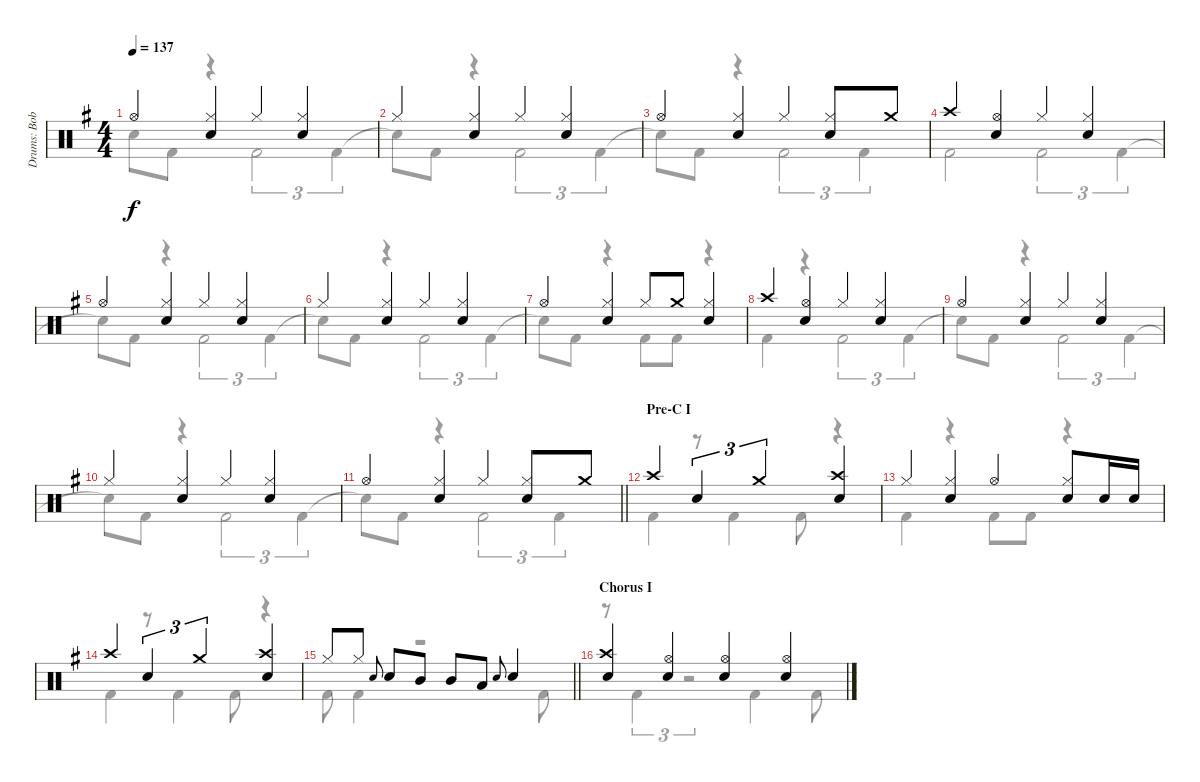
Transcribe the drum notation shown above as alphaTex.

\track ("Drums: Bobby" "Drums: Bob") {instrument percussion}
\staff {score}
\articulation defaults
\voice
\ts (4 4)
\tempo 137
\clef neutral
\ks g "Hi-Hat (open)".4{dy f}
("Hi-Hat (closed)" "Snare (hit) 2").4 "Hi-Hat (closed)".4 ("Hi-Hat (closed)" "Snare (hit) 2").4 |
"Hi-Hat (closed)".4 ("Hi-Hat (closed)" "Snare (hit) 2").4 "Hi-Hat (closed)".4 ("Hi-Hat (closed)" "Snare (hit) 2").4 |
"Hi-Hat (open)".4 ("Hi-Hat (closed)" "Snare (hit) 2").4 "Hi-Hat (closed)".4 ("Hi-Hat (closed)" "Snare (hit) 2").8 "Crash medium (hit)".8 |
"Crash high (hit)".4 ("Hi-Hat (open)" "Snare (hit) 2").4 "Hi-Hat (closed)".4 ("Hi-Hat (closed)" "Snare (hit) 2").4 |
"Hi-Hat (open)".4 ("Hi-Hat (closed)" "Snare (hit) 2").4 "Hi-Hat (closed)".4 ("Hi-Hat (closed)" "Snare (hit) 2").4 |
"Hi-Hat (closed)".4 ("Hi-Hat (closed)" "Snare (hit) 2").4 "Hi-Hat (closed)".4 ("Hi-Hat (closed)" "Snare (hit) 2").4 |
"Hi-Hat (open)".4 ("Hi-Hat (closed)" "Snare (hit) 2").4 "Hi-Hat (closed)".8 "Crash medium (hit)".8 ("Hi-Hat (closed)" "Snare (hit) 2").4 |
"Crash high (hit)".4 ("Hi-Hat (open)" "Snare (hit) 2").4 "Hi-Hat (closed)".4 ("Hi-Hat (closed)" "Snare (hit) 2").4 |
"Hi-Hat (open)".4 ("Hi-Hat (closed)" "Snare (hit) 2").4 "Hi-Hat (closed)".4 ("Hi-Hat (closed)" "Snare (hit) 2").4 |
"Hi-Hat (closed)".4 ("Hi-Hat (closed)" "Snare (hit) 2").4 "Hi-Hat (closed)".4 ("Hi-Hat (closed)" "Snare (hit) 2").4 |
\barLineRight lightlight "Hi-Hat (open)".4
("Hi-Hat (closed)" "Snare (hit) 2").4 "Hi-Hat (closed)".4 ("Hi-Hat (closed)" "Snare (hit) 2").8 "Crash medium (hit)".8 |
\section ("" "Pre-C I")
"Crash high (hit)".4 "Snare (hit) 2".4{tu (3 2)} "Crash medium (hit)".2{tu (3 2)} ("Crash high (hit)" "Snare (hit) 2").4 |
"Hi-Hat (closed)".4 ("Hi-Hat (closed)" "Snare (hit) 2").4 "Hi-Hat (open)".4 ("Hi-Hat (closed)" "Snare (hit) 2").8 "Snare (hit) 2".16 "Snare (hit) 2".16 |
"Crash high (hit)".4 "Snare (hit) 2".4{tu (3 2)} "Crash medium (hit)".2{tu (3 2)} ("Crash high (hit)" "Snare (hit) 2").4 |
\barLineRight lightlight "Hi-Hat (closed)".8 "Hi-Hat (closed)".8 "Electric Snare (hit)".8{gr onbeat} "Snare (hit) 2".8 "Mid Tom (hit)".8 "Mid Tom (hit)".8 "Low Tom (hit)".8 "Electric Snare (hit)".8{gr onbeat} "Snare (hit) 2".4
|
\section ("" "Chorus I")
("Crash high (hit)" "Snare (hit) 2").4 ("Hi-Hat (open)" "Snare (hit) 2").4 ("Hi-Hat (open)" "Snare (hit) 2").4 ("Hi-Hat (open)" "Snare (hit) 2").4
\voice
\clef neutral
\ottava regular
\simile none
\ks g "Snare (hit)"{t}.8{dy f} "Kick (hit) 2".8
r.4 "Kick (hit) 2".2{tu (3 2)} "Kick (hit) 2".4{tu (3 2)} |
"Snare (hit)"{t}.8 "Kick (hit) 2".8 r.4 "Kick (hit) 2".2{tu (3 2)} "Kick (hit) 2".4{tu (3 2)} |
"Snare (hit)"{t}.8 "Kick (hit) 2".8 r.4 "Kick (hit) 2".2{tu (3 2)} "Kick (hit) 2".4{tu (3 2)} |
"Kick (hit) 2".2 "Kick (hit) 2".2{tu (3 2)} "Kick (hit) 2".4{tu (3 2)} |
"Snare (hit)"{t}.8 "Kick (hit) 2".8 r.4 "Kick (hit) 2".2{tu (3 2)} "Kick (hit) 2".4{tu (3 2)} |
"Snare (hit)"{t}.8 "Kick (hit) 2".8 r.4 "Kick (hit) 2".2{tu (3 2)} "Kick (hit) 2".4{tu (3 2)} |
"Snare (hit)"{t}.8 "Kick (hit) 2".8 r.4 "Kick (hit) 2".8 "Kick (hit) 2".8 r.4 |
"Kick (hit) 2".4 r.4 "Kick (hit) 2".2{tu (3 2)} "Kick (hit) 2".4{tu (3 2)} |
"Snare (hit)"{t}.8 "Kick (hit) 2".8 r.4 "Kick (hit) 2".2{tu (3 2)} "Kick (hit) 2".4{tu (3 2)} |
"Snare (hit)"{t}.8 "Kick (hit) 2".8 r.4 "Kick (hit) 2".2{tu (3 2)} "Kick (hit) 2".4{tu (3 2)} |
\barLineRight lightlight "Snare (hit)"{t}.8 "Kick (hit) 2".8
r.4 "Kick (hit) 2".2{tu (3 2)} "Kick (hit) 2".4{tu (3 2)} |
"Kick (hit) 2".4 r.8 "Kick (hit) 2".4 "Kick (hit) 2".8 r.4 |
"Kick (hit) 2".4 r.4 "Kick (hit) 2".8 "Kick (hit) 2".8 r.4 |
"Kick (hit) 2".4 r.8 "Kick (hit) 2".4 "Kick (hit) 2".8 r.4 |
\barLineRight lightlight "Kick (hit) 2".8 "Kick (hit) 2".4
r.2 "Kick (hit) 2".8 |
r.8 "Kick (hit) 2".4{tu (3 2)} r.2{tu (3 2)} "Kick (hit) 2".4 "Kick (hit) 2".8
